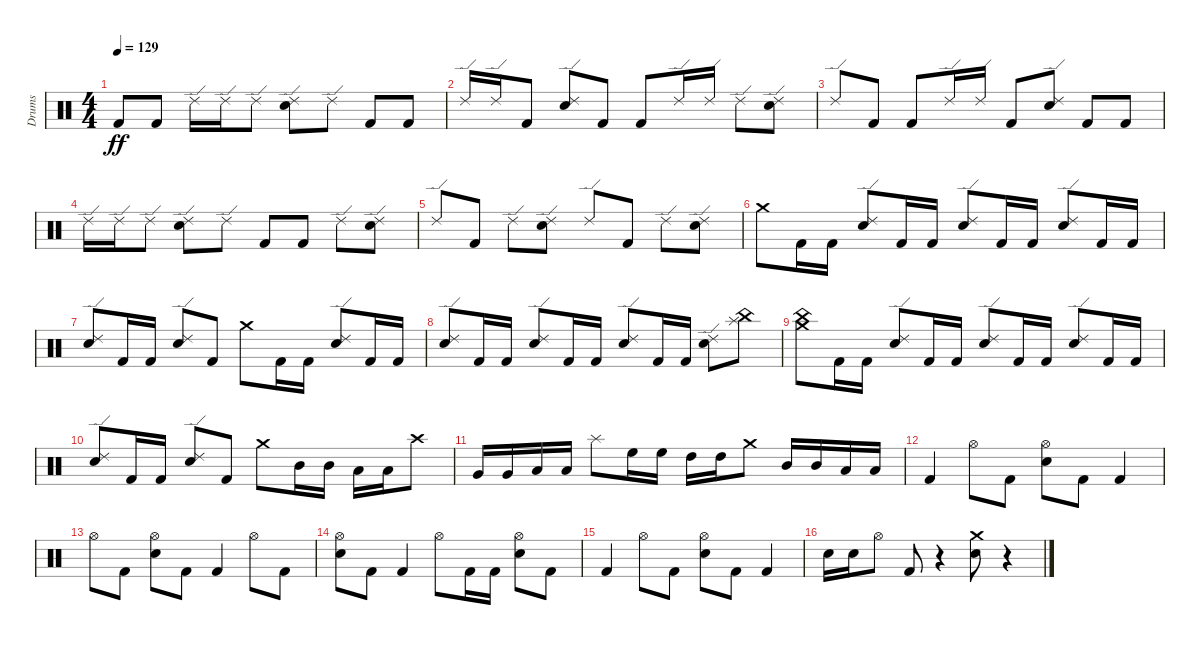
\track ("Drums" "Drums") {instrument percussion}
\staff {score}
\articulation defaults
\ts (4 4)
\tempo 129
\clef neutral
\ks c "Kick (hit) 2".8{dy ff} "Kick (hit) 2".8 "Ride (edge) 2".16 "Ride (edge) 2".16 "Ride (edge) 2".8
("Electric Snare (hit)" "Ride (edge) 2").8 "Ride (edge) 2".8 "Kick (hit) 2".8 "Kick (hit) 2".8 |
"Ride (edge) 2".16 "Ride (edge) 2".16 "Kick (hit) 2".8 ("Electric Snare (hit)" "Ride (edge) 2").8 "Kick (hit) 2".8 "Kick (hit) 2".8 "Ride (edge) 2".16 "Ride (edge) 2".16 "Ride (edge) 2".8 ("Electric Snare (hit)" "Ride (edge) 2").8 |
"Ride (edge) 2".8 "Kick (hit) 2".8 "Kick (hit) 2".8 "Ride (edge) 2".16 "Ride (edge) 2".16 "Kick (hit) 2".8 ("Electric Snare (hit)" "Ride (edge) 2").8 "Kick (hit) 2".8 "Kick (hit) 2".8 |
"Ride (edge) 2".16 "Ride (edge) 2".16 "Ride (edge) 2".8 ("Electric Snare (hit)" "Ride (edge) 2").8 "Ride (edge) 2".8 "Kick (hit) 2".8 "Kick (hit) 2".8 "Ride (edge) 2".8 ("Electric Snare (hit)" "Ride (edge) 2").8 |
"Ride (edge) 2".8 "Kick (hit) 2".8 "Ride (edge) 2".8 ("Electric Snare (hit)" "Ride (edge) 2").8 "Ride (edge) 2".8 "Kick (hit) 2".8 "Ride (edge) 2".8 ("Electric Snare (hit)" "Ride (edge) 2").8 |
"Crash medium (hit)".8 "Kick (hit) 2".16 "Kick (hit) 2".16 ("Electric Snare (hit)" "Ride (edge) 2").8 "Kick (hit) 2".16 "Kick (hit) 2".16 ("Electric Snare (hit)" "Ride (edge) 2").8 "Kick (hit) 2".16 "Kick (hit) 2".16 ("Electric Snare (hit)" "Ride (edge) 2").8 "Kick (hit) 2".16 "Kick (hit) 2".16 |
("Electric Snare (hit)" "Ride (edge) 2").8 "Kick (hit) 2".16 "Kick (hit) 2".16 ("Electric Snare (hit)" "Ride (edge) 2").8 "Kick (hit) 2".8 "Crash medium (hit)".8 "Kick (hit) 2".16 "Kick (hit) 2".16 ("Electric Snare (hit)" "Ride (edge) 2").8 "Kick (hit) 2".16 "Kick (hit) 2".16 |
("Electric Snare (hit)" "Ride (edge) 2").8 "Kick (hit) 2".16 "Kick (hit) 2".16 ("Electric Snare (hit)" "Ride (edge) 2").8 "Kick (hit) 2".16 "Kick (hit) 2".16 ("Electric Snare (hit)" "Ride (edge) 2").8 "Kick (hit) 2".16 "Kick (hit) 2".16 ("Electric Snare (hit)" "Ride (edge) 2").8 ("China (hit)" "Splash (hit)").8 |
("China (hit)" "Crash medium (hit)").8 "Kick (hit) 2".16 "Kick (hit) 2".16 ("Electric Snare (hit)" "Ride (edge) 2").8 "Kick (hit) 2".16 "Kick (hit) 2".16 ("Electric Snare (hit)" "Ride (edge) 2").8 "Kick (hit) 2".16 "Kick (hit) 2".16 ("Electric Snare (hit)" "Ride (edge) 2").8 "Kick (hit) 2".16 "Kick (hit) 2".16 |
("Electric Snare (hit)" "Ride (edge) 2").8 "Kick (hit) 2".16 "Kick (hit) 2".16 ("Electric Snare (hit)" "Ride (edge) 2").8 "Kick (hit) 2".8 "Crash medium (hit)".8 "Mid Tom (hit)".16 "Mid Tom (hit)".16 "Low Tom (hit)".16 "Low Tom (hit)".16 "Crash high (hit)".8 |
"Very Low Tom (hit)".16 "Very Low Tom (hit)".16 "Low Floor Tom (hit)".16 "Low Floor Tom (hit)".16 "Splash (hit)".8 "High Floor Tom (hit)".16 "High Floor Tom (hit)".16 "High Tom (hit)".16 "High Tom (hit)".16 "Crash medium (hit)".8 "Mid Tom (hit)".16 "Mid Tom (hit)".16 "Low Tom (hit)".16 "Low Tom (hit)".16 |
"Kick (hit) 2".4 "Hi-Hat (open)".8 "Kick (hit) 2".8 ("Electric Snare (hit)" "Hi-Hat (open)").8 "Kick (hit) 2".8 "Kick (hit) 2".4 |
"Hi-Hat (open)".8 "Kick (hit) 2".8 ("Electric Snare (hit)" "Hi-Hat (open)").8 "Kick (hit) 2".8 "Kick (hit) 2".4 "Hi-Hat (open)".8 "Kick (hit) 2".8 |
("Electric Snare (hit)" "Hi-Hat (open)").8 "Kick (hit) 2".8 "Kick (hit) 2".4 "Hi-Hat (open)".8 "Kick (hit) 2".16 "Kick (hit) 2".16 ("Electric Snare (hit)" "Hi-Hat (open)").8 "Kick (hit) 2".8 |
"Kick (hit) 2".4 "Hi-Hat (open)".8 "Kick (hit) 2".8 ("Electric Snare (hit)" "Hi-Hat (open)").8 "Kick (hit) 2".8 "Kick (hit) 2".4 |
"Electric Snare (hit)".16 "Electric Snare (hit)".16 "Hi-Hat (open)".8 "Kick (hit) 2".8 r.4 ("Electric Snare (hit)" "Crash medium (hit)").8 r.4
